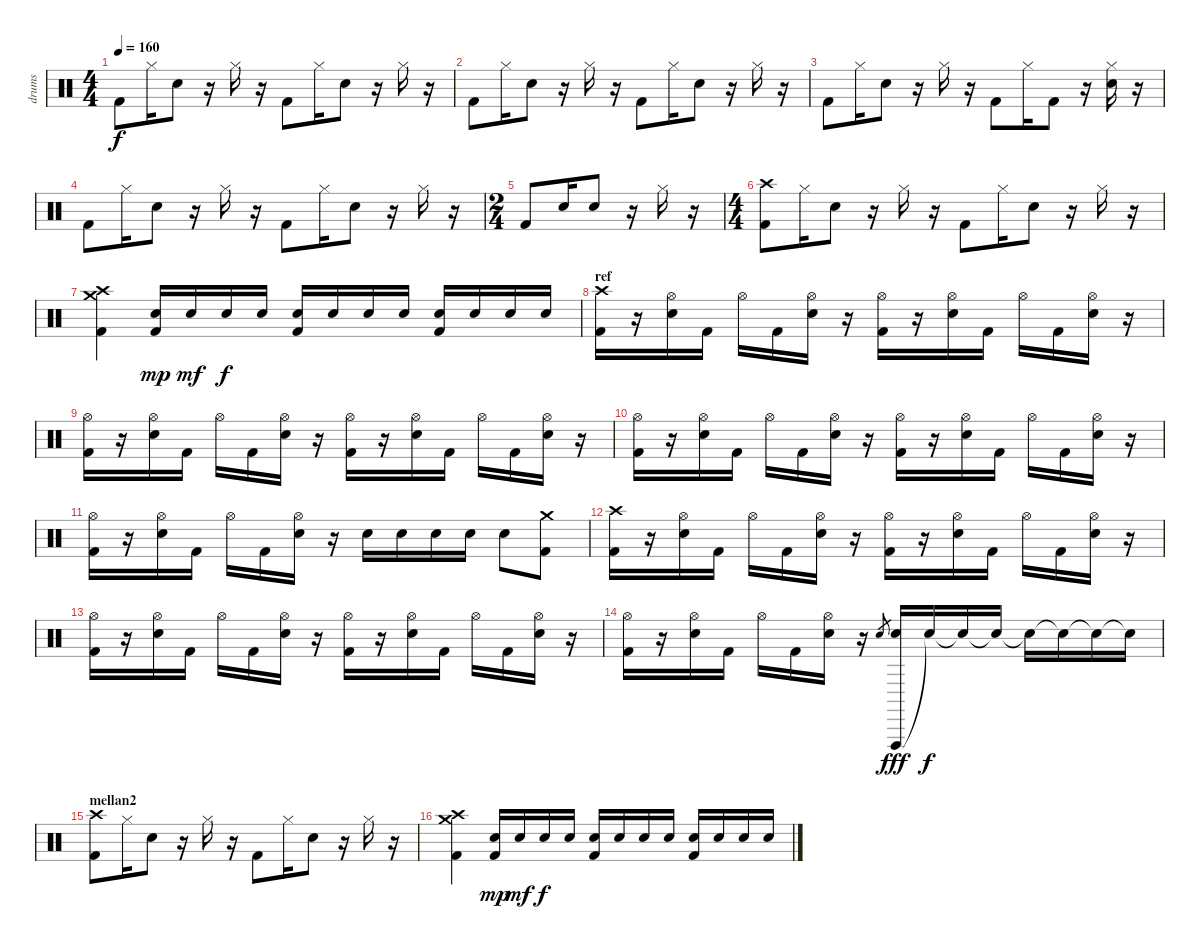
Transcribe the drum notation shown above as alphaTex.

\track ("drums" "drums") {instrument percussion}
\staff {score}
\articulation defaults
\ts (4 4)
\tempo 160
\clef neutral
\ks c "Kick (hit) 2".8{dy f} "Hi-Hat (closed)".16 "Electric Snare (hit)".8
r.16 "Hi-Hat (closed)".16 r.16 "Kick (hit) 2".8 "Hi-Hat (closed)".16 "Electric Snare (hit)".8 r.16 "Hi-Hat (closed)".16 r.16 |
"Kick (hit) 2".8 "Hi-Hat (closed)".16 "Electric Snare (hit)".8 r.16 "Hi-Hat (closed)".16 r.16 "Kick (hit) 2".8 "Hi-Hat (closed)".16 "Electric Snare (hit)".8 r.16 "Hi-Hat (closed)".16 r.16 |
"Kick (hit) 2".8 "Hi-Hat (closed)".16 "Electric Snare (hit)".8 r.16 "Hi-Hat (closed)".16 r.16 "Kick (hit) 2".8 "Hi-Hat (closed)".16 "Kick (hit) 2".8 r.16 ("Hi-Hat (closed)" "Electric Snare (hit)").16 r.16 |
"Kick (hit) 2".8 "Hi-Hat (closed)".16 "Electric Snare (hit)".8 r.16 "Hi-Hat (closed)".16 r.16 "Kick (hit) 2".8 "Hi-Hat (closed)".16 "Electric Snare (hit)".8 r.16 "Hi-Hat (closed)".16 r.16 |
\ts (2 4)
"Kick (hit) 2".8 "Electric Snare (hit)".16 "Electric Snare (hit)".8 r.16 "Hi-Hat (closed)".16 r.16 |
\ts (4 4)
("Crash high (hit)" "Kick (hit) 2").8 "Hi-Hat (closed)".16 "Electric Snare (hit)".8 r.16 "Hi-Hat (closed)".16 r.16 "Kick (hit) 2".8 "Hi-Hat (closed)".16 "Electric Snare (hit)".8 r.16 "Hi-Hat (closed)".16 r.16 |
("Crash high (hit)" "Crash medium (hit)" "Kick (hit) 2").4 ("Electric Snare (hit)" "Kick (hit) 2").16{dy mp} "Electric Snare (hit)".16{dy mf} "Electric Snare (hit)".16{dy f} "Electric Snare (hit)".16 ("Electric Snare (hit)" "Kick (hit) 2").16 "Electric Snare (hit)".16 "Electric Snare (hit)".16 "Electric Snare (hit)".16 ("Electric Snare (hit)" "Kick (hit) 2").16 "Electric Snare (hit)".16 "Electric Snare (hit)".16 "Electric Snare (hit)".16 |
\section ("" "ref")
("Crash high (hit)" "Kick (hit) 2").16 r.16 ("Hi-Hat (open)" "Electric Snare (hit)").16 "Kick (hit) 2".16 "Hi-Hat (open)".16 "Kick (hit) 2".16 ("Hi-Hat (open)" "Electric Snare (hit)").16 r.16 ("Hi-Hat (open)" "Kick (hit) 2").16 r.16 ("Hi-Hat (open)" "Electric Snare (hit)").16 "Kick (hit) 2".16 "Hi-Hat (open)".16 "Kick (hit) 2".16 ("Hi-Hat (open)" "Electric Snare (hit)").16 r.16 |
("Hi-Hat (open)" "Kick (hit) 2").16 r.16 ("Hi-Hat (open)" "Electric Snare (hit)").16 "Kick (hit) 2".16 "Hi-Hat (open)".16 "Kick (hit) 2".16 ("Hi-Hat (open)" "Electric Snare (hit)").16 r.16 ("Hi-Hat (open)" "Kick (hit) 2").16 r.16 ("Hi-Hat (open)" "Electric Snare (hit)").16 "Kick (hit) 2".16 "Hi-Hat (open)".16 "Kick (hit) 2".16 ("Hi-Hat (open)" "Electric Snare (hit)").16 r.16 |
("Hi-Hat (open)" "Kick (hit) 2").16 r.16 ("Hi-Hat (open)" "Electric Snare (hit)").16 "Kick (hit) 2".16 "Hi-Hat (open)".16 "Kick (hit) 2".16 ("Hi-Hat (open)" "Electric Snare (hit)").16 r.16 ("Hi-Hat (open)" "Kick (hit) 2").16 r.16 ("Hi-Hat (open)" "Electric Snare (hit)").16 "Kick (hit) 2".16 "Hi-Hat (open)".16 "Kick (hit) 2".16 ("Hi-Hat (open)" "Electric Snare (hit)").16 r.16 |
("Hi-Hat (open)" "Kick (hit) 2").16 r.16 ("Hi-Hat (open)" "Electric Snare (hit)").16 "Kick (hit) 2".16 "Hi-Hat (open)".16 "Kick (hit) 2".16 ("Hi-Hat (open)" "Electric Snare (hit)").16 r.16 "Electric Snare (hit)".16 "Electric Snare (hit)".16 "Electric Snare (hit)".16 "Electric Snare (hit)".16 "Electric Snare (hit)".8 ("Crash medium (hit)" "Kick (hit) 2").8 |
("Crash high (hit)" "Kick (hit) 2").16 r.16 ("Hi-Hat (open)" "Electric Snare (hit)").16 "Kick (hit) 2".16 "Hi-Hat (open)".16 "Kick (hit) 2".16 ("Hi-Hat (open)" "Electric Snare (hit)").16 r.16 ("Hi-Hat (open)" "Kick (hit) 2").16 r.16 ("Hi-Hat (open)" "Electric Snare (hit)").16 "Kick (hit) 2".16 "Hi-Hat (open)".16 "Kick (hit) 2".16 ("Hi-Hat (open)" "Electric Snare (hit)").16 r.16 |
("Hi-Hat (open)" "Kick (hit) 2").16 r.16 ("Hi-Hat (open)" "Electric Snare (hit)").16 "Kick (hit) 2".16 "Hi-Hat (open)".16 "Kick (hit) 2".16 ("Hi-Hat (open)" "Electric Snare (hit)").16 r.16 ("Hi-Hat (open)" "Kick (hit) 2").16 r.16 ("Hi-Hat (open)" "Electric Snare (hit)").16 "Kick (hit) 2".16 "Hi-Hat (open)".16 "Kick (hit) 2".16 ("Hi-Hat (open)" "Electric Snare (hit)").16 r.16 |
("Hi-Hat (open)" "Kick (hit) 2").16 r.16 ("Hi-Hat (open)" "Electric Snare (hit)").16 "Kick (hit) 2".16 "Hi-Hat (open)".16 "Kick (hit) 2".16 ("Hi-Hat (open)" "Electric Snare (hit)").16 r.16 "Electric Snare (hit)".8{gr} ("Vibraslap (hit)" "Electric Snare (hit)").16{dy fff} "Snare (hit)"{t}.16{dy f} "Snare (hit)"{t}.16 "Snare (hit)"{t}.16 "Snare (hit)"{t}.16 "Snare (hit)"{t}.16 "Snare (hit)"{t}.16 "Snare (hit)"{t}.16 |
\section ("" "mellan2")
("Crash high (hit)" "Kick (hit) 2").8 "Hi-Hat (closed)".16 "Electric Snare (hit)".8 r.16 "Hi-Hat (closed)".16 r.16 "Kick (hit) 2".8 "Hi-Hat (closed)".16 "Electric Snare (hit)".8 r.16 "Hi-Hat (closed)".16 r.16 |
("Crash high (hit)" "Crash medium (hit)" "Kick (hit) 2").4 ("Electric Snare (hit)" "Kick (hit) 2").16{dy mp} "Electric Snare (hit)".16{dy mf} "Electric Snare (hit)".16{dy f} "Electric Snare (hit)".16 ("Electric Snare (hit)" "Kick (hit) 2").16 "Electric Snare (hit)".16 "Electric Snare (hit)".16 "Electric Snare (hit)".16 ("Electric Snare (hit)" "Kick (hit) 2").16 "Electric Snare (hit)".16 "Electric Snare (hit)".16 "Electric Snare (hit)".16
